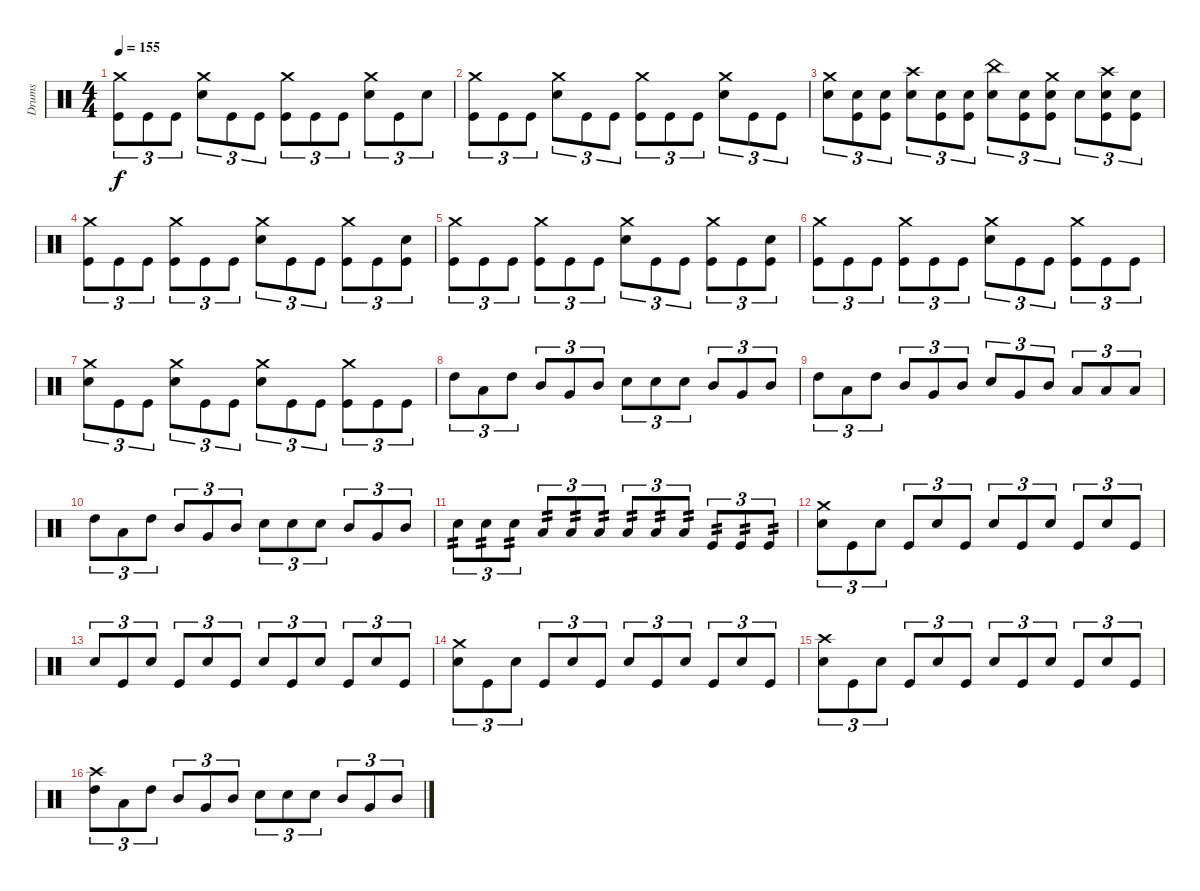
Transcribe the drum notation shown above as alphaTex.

\track ("Drums" "Drums") {instrument percussion}
\staff {score}
\articulation defaults
\ts (4 4)
\tempo 155
\clef neutral
\ks c
("Crash medium (hit)" "Kick (hit)").8{tu (3 2) dy f} "Kick (hit)".8{tu (3 2)} "Kick (hit)".8{tu (3 2)} ("Crash medium (hit)" "Electric Snare (hit)").8{tu (3 2)} "Kick (hit)".8{tu (3 2)} "Kick (hit)".8{tu (3 2)} ("Crash medium (hit)" "Kick (hit)").8{tu (3 2)} "Kick (hit)".8{tu (3 2)} "Kick (hit)".8{tu (3 2)} ("Crash medium (hit)" "Electric Snare (hit)").8{tu (3 2)} "Kick (hit)".8{tu (3 2)} "Electric Snare (hit)".8{tu (3 2)} |
("Crash medium (hit)" "Kick (hit)").8{tu (3 2)} "Kick (hit)".8{tu (3 2)} "Kick (hit)".8{tu (3 2)} ("Crash medium (hit)" "Electric Snare (hit)").8{tu (3 2)} "Kick (hit)".8{tu (3 2)} "Kick (hit)".8{tu (3 2)} ("Crash medium (hit)" "Kick (hit)").8{tu (3 2)} "Kick (hit)".8{tu (3 2)} "Kick (hit)".8{tu (3 2)} ("Crash medium (hit)" "Electric Snare (hit)").8{tu (3 2)} "Kick (hit)".8{tu (3 2)} "Kick (hit)".8{tu (3 2)} |
("Crash medium (hit)" "Electric Snare (hit)").8{tu (3 2)} ("Electric Snare (hit)" "Kick (hit)").8{tu (3 2)} ("Electric Snare (hit)" "Kick (hit)").8{tu (3 2)} ("Crash high (hit)" "Electric Snare (hit)").8{tu (3 2)} ("Electric Snare (hit)" "Kick (hit)").8{tu (3 2)} ("Electric Snare (hit)" "Kick (hit)").8{tu (3 2)} ("China (hit)" "Electric Snare (hit)").8{tu (3 2)} ("Electric Snare (hit)" "Kick (hit)").8{tu (3 2)} ("Crash medium (hit)" "Electric Snare (hit)" "Kick (hit)").8{tu (3 2)} "Electric Snare (hit)".8{tu (3 2)} ("Crash high (hit)" "Electric Snare (hit)" "Kick (hit)").8{tu (3 2)} ("Electric Snare (hit)" "Kick (hit)").8{tu (3 2)} |
("Crash medium (hit)" "Kick (hit)").8{tu (3 2)} "Kick (hit)".8{tu (3 2)} "Kick (hit)".8{tu (3 2)} ("Crash medium (hit)" "Kick (hit)").8{tu (3 2)} "Kick (hit)".8{tu (3 2)} "Kick (hit)".8{tu (3 2)} ("Crash medium (hit)" "Electric Snare (hit)").8{tu (3 2)} "Kick (hit)".8{tu (3 2)} "Kick (hit)".8{tu (3 2)} ("Crash medium (hit)" "Kick (hit)").8{tu (3 2)} "Kick (hit)".8{tu (3 2)} ("Electric Snare (hit)" "Kick (hit)").8{tu (3 2)} |
("Crash medium (hit)" "Kick (hit)").8{tu (3 2)} "Kick (hit)".8{tu (3 2)} "Kick (hit)".8{tu (3 2)} ("Crash medium (hit)" "Kick (hit)").8{tu (3 2)} "Kick (hit)".8{tu (3 2)} "Kick (hit)".8{tu (3 2)} ("Crash medium (hit)" "Electric Snare (hit)").8{tu (3 2)} "Kick (hit)".8{tu (3 2)} "Kick (hit)".8{tu (3 2)} ("Crash medium (hit)" "Kick (hit)").8{tu (3 2)} "Kick (hit)".8{tu (3 2)} ("Electric Snare (hit)" "Kick (hit)").8{tu (3 2)} |
("Crash medium (hit)" "Kick (hit)").8{tu (3 2)} "Kick (hit)".8{tu (3 2)} "Kick (hit)".8{tu (3 2)} ("Crash medium (hit)" "Kick (hit)").8{tu (3 2)} "Kick (hit)".8{tu (3 2)} "Kick (hit)".8{tu (3 2)} ("Crash medium (hit)" "Electric Snare (hit)").8{tu (3 2)} "Kick (hit)".8{tu (3 2)} "Kick (hit)".8{tu (3 2)} ("Crash medium (hit)" "Kick (hit)").8{tu (3 2)} "Kick (hit)".8{tu (3 2)} "Kick (hit)".8{tu (3 2)} |
("Crash medium (hit)" "Electric Snare (hit)").8{tu (3 2)} "Kick (hit)".8{tu (3 2)} "Kick (hit)".8{tu (3 2)} ("Crash medium (hit)" "Electric Snare (hit)").8{tu (3 2)} "Kick (hit)".8{tu (3 2)} "Kick (hit)".8{tu (3 2)} ("Crash medium (hit)" "Electric Snare (hit)").8{tu (3 2)} "Kick (hit)".8{tu (3 2)} "Kick (hit)".8{tu (3 2)} ("Crash medium (hit)" "Kick (hit)").8{tu (3 2)} "Kick (hit)".8{tu (3 2)} "Kick (hit)".8{tu (3 2)} |
"High Tom (hit)".8{tu (3 2)} "Low Tom (hit)".8{tu (3 2)} "High Tom (hit)".8{tu (3 2)} "Mid Tom (hit)".8{tu (3 2)} "Very Low Tom (hit)".8{tu (3 2)} "Mid Tom (hit)".8{tu (3 2)} "Electric Snare (hit)".8{tu (3 2)} "Electric Snare (hit)".8{tu (3 2)} "Electric Snare (hit)".8{tu (3 2)} "Mid Tom (hit)".8{tu (3 2)} "Very Low Tom (hit)".8{tu (3 2)} "Mid Tom (hit)".8{tu (3 2)} |
"High Tom (hit)".8{tu (3 2)} "Low Tom (hit)".8{tu (3 2)} "High Tom (hit)".8{tu (3 2)} "Mid Tom (hit)".8{tu (3 2)} "Very Low Tom (hit)".8{tu (3 2)} "Mid Tom (hit)".8{tu (3 2)} "Electric Snare (hit)".8{tu (3 2)} "Very Low Tom (hit)".8{tu (3 2)} "Mid Tom (hit)".8{tu (3 2)} "Low Tom (hit)".8{tu (3 2)} "Low Floor Tom (hit)".8{tu (3 2)} "Low Tom (hit)".8{tu (3 2)} |
"High Tom (hit)".8{tu (3 2)} "Low Tom (hit)".8{tu (3 2)} "High Tom (hit)".8{tu (3 2)} "Mid Tom (hit)".8{tu (3 2)} "Very Low Tom (hit)".8{tu (3 2)} "Mid Tom (hit)".8{tu (3 2)} "Electric Snare (hit)".8{tu (3 2)} "Electric Snare (hit)".8{tu (3 2)} "Electric Snare (hit)".8{tu (3 2)} "Mid Tom (hit)".8{tu (3 2)} "Very Low Tom (hit)".8{tu (3 2)} "Mid Tom (hit)".8{tu (3 2)} |
"Electric Snare (hit)".8{tu (3 2) tp 2} "Electric Snare (hit)".8{tu (3 2) tp 2} "Electric Snare (hit)".8{tu (3 2) tp 2} "Low Tom (hit)".8{tu (3 2) tp 2} "Low Tom (hit)".8{tu (3 2) tp 2} "Low Tom (hit)".8{tu (3 2) tp 2} "Low Floor Tom (hit)".8{tu (3 2) tp 2} "Low Floor Tom (hit)".8{tu (3 2) tp 2} "Low Floor Tom (hit)".8{tu (3 2) tp 2} "Kick (hit)".8{tu (3 2) tp 2} "Kick (hit)".8{tu (3 2) tp 2} "Kick (hit)".8{tu (3 2) tp 2} |
("Crash medium (hit)" "Electric Snare (hit)").8{tu (3 2)} "Kick (hit)".8{tu (3 2)} "Electric Snare (hit)".8{tu (3 2)} "Kick (hit)".8{tu (3 2)} "Electric Snare (hit)".8{tu (3 2)} "Kick (hit)".8{tu (3 2)} "Electric Snare (hit)".8{tu (3 2)} "Kick (hit)".8{tu (3 2)} "Electric Snare (hit)".8{tu (3 2)} "Kick (hit)".8{tu (3 2)} "Electric Snare (hit)".8{tu (3 2)} "Kick (hit)".8{tu (3 2)} |
"Electric Snare (hit)".8{tu (3 2)} "Kick (hit)".8{tu (3 2)} "Electric Snare (hit)".8{tu (3 2)} "Kick (hit)".8{tu (3 2)} "Electric Snare (hit)".8{tu (3 2)} "Kick (hit)".8{tu (3 2)} "Electric Snare (hit)".8{tu (3 2)} "Kick (hit)".8{tu (3 2)} "Electric Snare (hit)".8{tu (3 2)} "Kick (hit)".8{tu (3 2)} "Electric Snare (hit)".8{tu (3 2)} "Kick (hit)".8{tu (3 2)} |
("Crash medium (hit)" "Electric Snare (hit)").8{tu (3 2)} "Kick (hit)".8{tu (3 2)} "Electric Snare (hit)".8{tu (3 2)} "Kick (hit)".8{tu (3 2)} "Electric Snare (hit)".8{tu (3 2)} "Kick (hit)".8{tu (3 2)} "Electric Snare (hit)".8{tu (3 2)} "Kick (hit)".8{tu (3 2)} "Electric Snare (hit)".8{tu (3 2)} "Kick (hit)".8{tu (3 2)} "Electric Snare (hit)".8{tu (3 2)} "Kick (hit)".8{tu (3 2)} |
("Crash high (hit)" "Electric Snare (hit)").8{tu (3 2)} "Kick (hit)".8{tu (3 2)} "Electric Snare (hit)".8{tu (3 2)} "Kick (hit)".8{tu (3 2)} "Electric Snare (hit)".8{tu (3 2)} "Kick (hit)".8{tu (3 2)} "Electric Snare (hit)".8{tu (3 2)} "Kick (hit)".8{tu (3 2)} "Electric Snare (hit)".8{tu (3 2)} "Kick (hit)".8{tu (3 2)} "Electric Snare (hit)".8{tu (3 2)} "Kick (hit)".8{tu (3 2)} |
("Crash high (hit)" "High Tom (hit)").8{tu (3 2)} "Low Tom (hit)".8{tu (3 2)} "High Tom (hit)".8{tu (3 2)} "Mid Tom (hit)".8{tu (3 2)} "Very Low Tom (hit)".8{tu (3 2)} "Mid Tom (hit)".8{tu (3 2)} "Electric Snare (hit)".8{tu (3 2)} "Electric Snare (hit)".8{tu (3 2)} "Electric Snare (hit)".8{tu (3 2)} "Mid Tom (hit)".8{tu (3 2)} "Very Low Tom (hit)".8{tu (3 2)} "Mid Tom (hit)".8{tu (3 2)}
